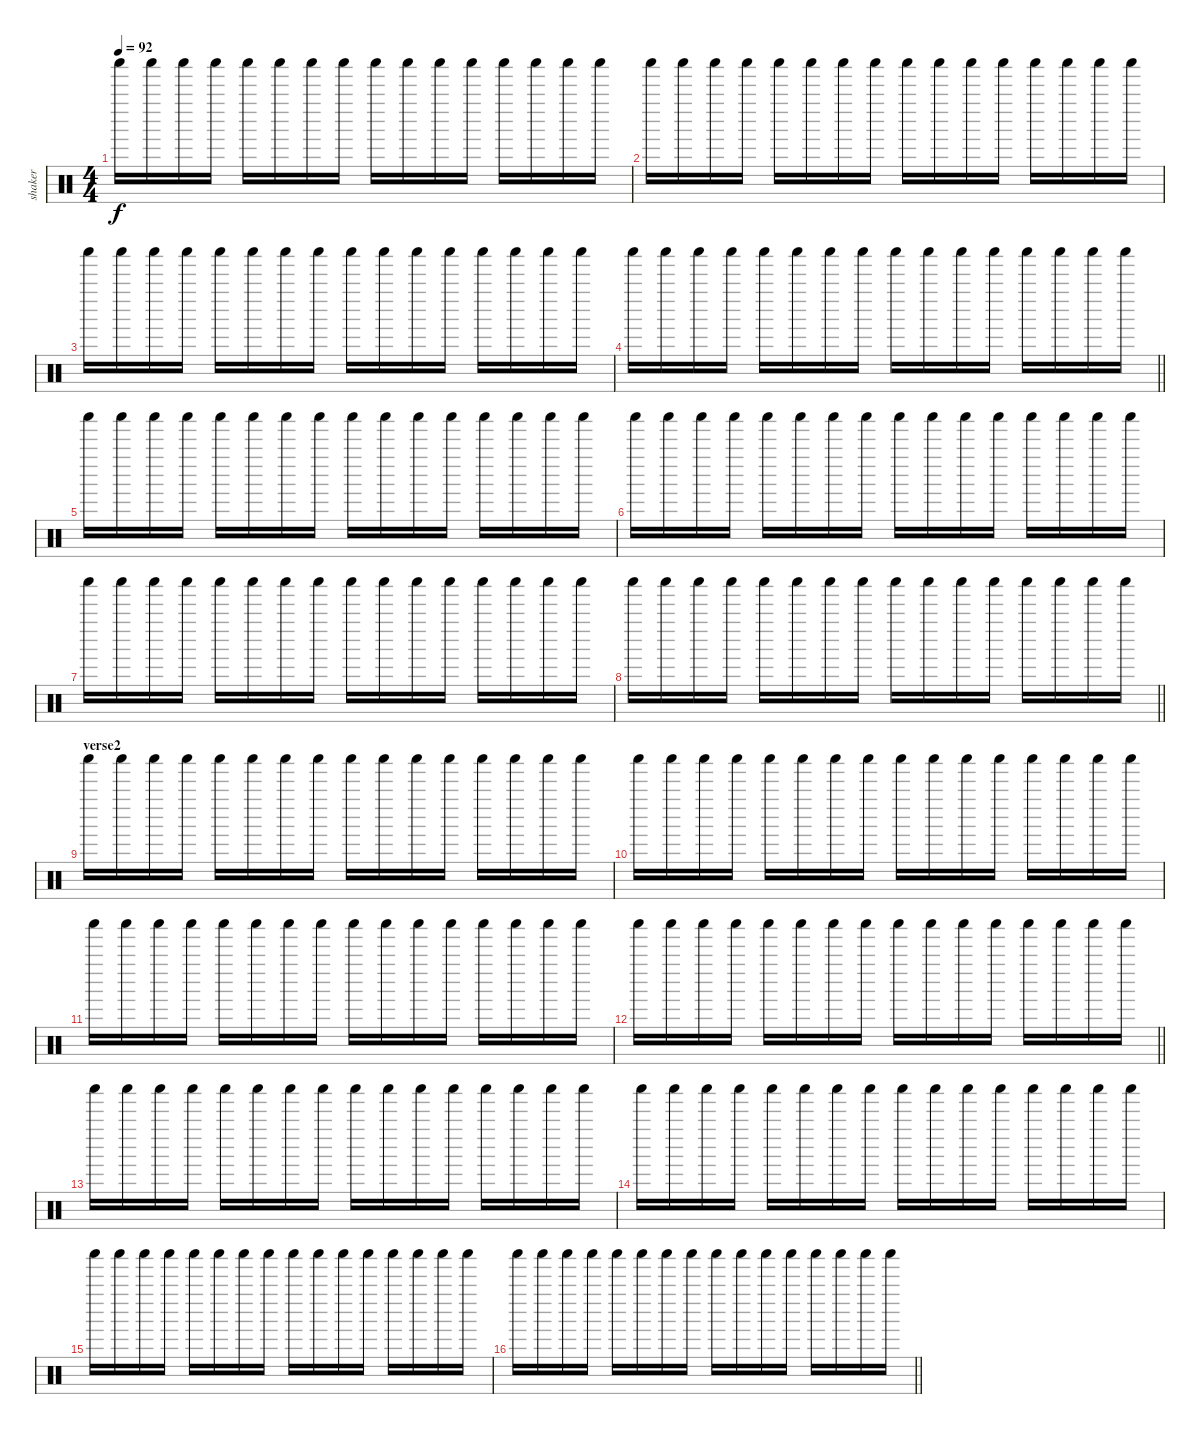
\track ("shaker" "shaker") {instrument percussion}
\staff {score}
\articulation defaults
\ts (4 4)
\tempo 92
\clef neutral
\ks c "Shaker (hit)".16{dy f} "Shaker (hit)".16 "Shaker (hit)".16 "Shaker (hit)".16 "Shaker (hit)".16 "Shaker (hit)".16 "Shaker (hit)".16 "Shaker (hit)".16 "Shaker (hit)".16 "Shaker (hit)".16 "Shaker (hit)".16 "Shaker (hit)".16 "Shaker (hit)".16 "Shaker (hit)".16 "Shaker (hit)".16 "Shaker (hit)".16
|
"Shaker (hit)".16 "Shaker (hit)".16 "Shaker (hit)".16 "Shaker (hit)".16 "Shaker (hit)".16 "Shaker (hit)".16 "Shaker (hit)".16 "Shaker (hit)".16 "Shaker (hit)".16 "Shaker (hit)".16 "Shaker (hit)".16 "Shaker (hit)".16 "Shaker (hit)".16 "Shaker (hit)".16 "Shaker (hit)".16 "Shaker (hit)".16 |
"Shaker (hit)".16 "Shaker (hit)".16 "Shaker (hit)".16 "Shaker (hit)".16 "Shaker (hit)".16 "Shaker (hit)".16 "Shaker (hit)".16 "Shaker (hit)".16 "Shaker (hit)".16 "Shaker (hit)".16 "Shaker (hit)".16 "Shaker (hit)".16 "Shaker (hit)".16 "Shaker (hit)".16 "Shaker (hit)".16 "Shaker (hit)".16 |
\barLineRight lightlight "Shaker (hit)".16 "Shaker (hit)".16 "Shaker (hit)".16 "Shaker (hit)".16 "Shaker (hit)".16 "Shaker (hit)".16 "Shaker (hit)".16 "Shaker (hit)".16 "Shaker (hit)".16 "Shaker (hit)".16 "Shaker (hit)".16 "Shaker (hit)".16 "Shaker (hit)".16 "Shaker (hit)".16 "Shaker (hit)".16 "Shaker (hit)".16
|
"Shaker (hit)".16 "Shaker (hit)".16 "Shaker (hit)".16 "Shaker (hit)".16 "Shaker (hit)".16 "Shaker (hit)".16 "Shaker (hit)".16 "Shaker (hit)".16 "Shaker (hit)".16 "Shaker (hit)".16 "Shaker (hit)".16 "Shaker (hit)".16 "Shaker (hit)".16 "Shaker (hit)".16 "Shaker (hit)".16 "Shaker (hit)".16 |
"Shaker (hit)".16 "Shaker (hit)".16 "Shaker (hit)".16 "Shaker (hit)".16 "Shaker (hit)".16 "Shaker (hit)".16 "Shaker (hit)".16 "Shaker (hit)".16 "Shaker (hit)".16 "Shaker (hit)".16 "Shaker (hit)".16 "Shaker (hit)".16 "Shaker (hit)".16 "Shaker (hit)".16 "Shaker (hit)".16 "Shaker (hit)".16 |
"Shaker (hit)".16 "Shaker (hit)".16 "Shaker (hit)".16 "Shaker (hit)".16 "Shaker (hit)".16 "Shaker (hit)".16 "Shaker (hit)".16 "Shaker (hit)".16 "Shaker (hit)".16 "Shaker (hit)".16 "Shaker (hit)".16 "Shaker (hit)".16 "Shaker (hit)".16 "Shaker (hit)".16 "Shaker (hit)".16 "Shaker (hit)".16 |
\barLineRight lightlight "Shaker (hit)".16 "Shaker (hit)".16 "Shaker (hit)".16 "Shaker (hit)".16 "Shaker (hit)".16 "Shaker (hit)".16 "Shaker (hit)".16 "Shaker (hit)".16 "Shaker (hit)".16 "Shaker (hit)".16 "Shaker (hit)".16 "Shaker (hit)".16 "Shaker (hit)".16 "Shaker (hit)".16 "Shaker (hit)".16 "Shaker (hit)".16
|
\section ("" "verse2")
"Shaker (hit)".16 "Shaker (hit)".16 "Shaker (hit)".16 "Shaker (hit)".16 "Shaker (hit)".16 "Shaker (hit)".16 "Shaker (hit)".16 "Shaker (hit)".16 "Shaker (hit)".16 "Shaker (hit)".16 "Shaker (hit)".16 "Shaker (hit)".16 "Shaker (hit)".16 "Shaker (hit)".16 "Shaker (hit)".16 "Shaker (hit)".16 |
"Shaker (hit)".16 "Shaker (hit)".16 "Shaker (hit)".16 "Shaker (hit)".16 "Shaker (hit)".16 "Shaker (hit)".16 "Shaker (hit)".16 "Shaker (hit)".16 "Shaker (hit)".16 "Shaker (hit)".16 "Shaker (hit)".16 "Shaker (hit)".16 "Shaker (hit)".16 "Shaker (hit)".16 "Shaker (hit)".16 "Shaker (hit)".16 |
"Shaker (hit)".16 "Shaker (hit)".16 "Shaker (hit)".16 "Shaker (hit)".16 "Shaker (hit)".16 "Shaker (hit)".16 "Shaker (hit)".16 "Shaker (hit)".16 "Shaker (hit)".16 "Shaker (hit)".16 "Shaker (hit)".16 "Shaker (hit)".16 "Shaker (hit)".16 "Shaker (hit)".16 "Shaker (hit)".16 "Shaker (hit)".16 |
\barLineRight lightlight "Shaker (hit)".16 "Shaker (hit)".16 "Shaker (hit)".16 "Shaker (hit)".16 "Shaker (hit)".16 "Shaker (hit)".16 "Shaker (hit)".16 "Shaker (hit)".16 "Shaker (hit)".16 "Shaker (hit)".16 "Shaker (hit)".16 "Shaker (hit)".16 "Shaker (hit)".16 "Shaker (hit)".16 "Shaker (hit)".16 "Shaker (hit)".16
|
"Shaker (hit)".16 "Shaker (hit)".16 "Shaker (hit)".16 "Shaker (hit)".16 "Shaker (hit)".16 "Shaker (hit)".16 "Shaker (hit)".16 "Shaker (hit)".16 "Shaker (hit)".16 "Shaker (hit)".16 "Shaker (hit)".16 "Shaker (hit)".16 "Shaker (hit)".16 "Shaker (hit)".16 "Shaker (hit)".16 "Shaker (hit)".16 |
"Shaker (hit)".16 "Shaker (hit)".16 "Shaker (hit)".16 "Shaker (hit)".16 "Shaker (hit)".16 "Shaker (hit)".16 "Shaker (hit)".16 "Shaker (hit)".16 "Shaker (hit)".16 "Shaker (hit)".16 "Shaker (hit)".16 "Shaker (hit)".16 "Shaker (hit)".16 "Shaker (hit)".16 "Shaker (hit)".16 "Shaker (hit)".16 |
"Shaker (hit)".16 "Shaker (hit)".16 "Shaker (hit)".16 "Shaker (hit)".16 "Shaker (hit)".16 "Shaker (hit)".16 "Shaker (hit)".16 "Shaker (hit)".16 "Shaker (hit)".16 "Shaker (hit)".16 "Shaker (hit)".16 "Shaker (hit)".16 "Shaker (hit)".16 "Shaker (hit)".16 "Shaker (hit)".16 "Shaker (hit)".16 |
\barLineRight lightlight "Shaker (hit)".16 "Shaker (hit)".16 "Shaker (hit)".16 "Shaker (hit)".16 "Shaker (hit)".16 "Shaker (hit)".16 "Shaker (hit)".16 "Shaker (hit)".16 "Shaker (hit)".16 "Shaker (hit)".16 "Shaker (hit)".16 "Shaker (hit)".16 "Shaker (hit)".16 "Shaker (hit)".16 "Shaker (hit)".16 "Shaker (hit)".16
